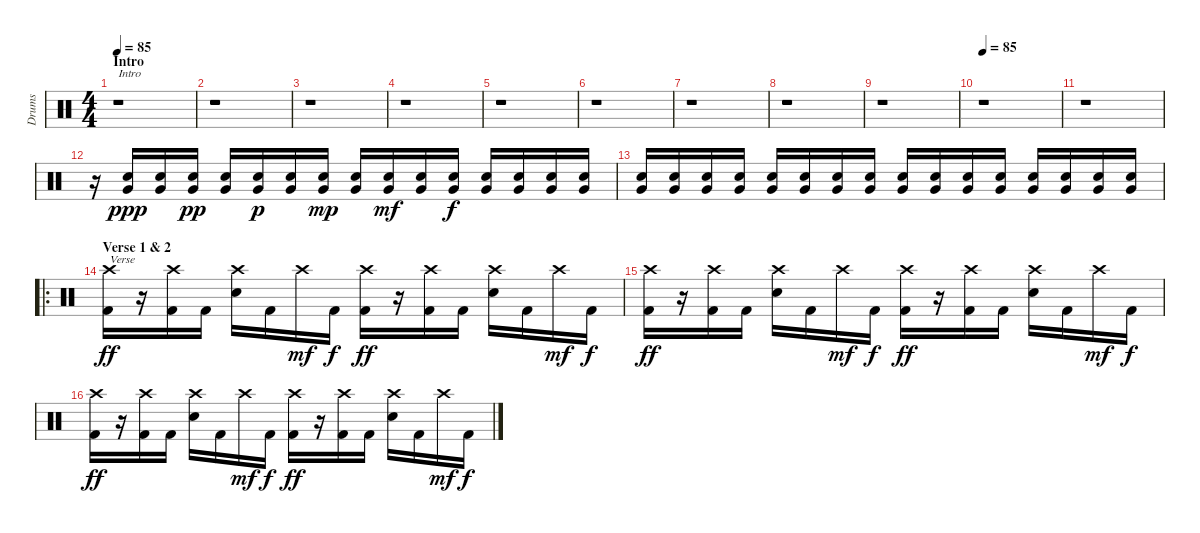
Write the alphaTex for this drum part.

\track ("Drums" "Drums") {instrument percussion}
\staff {score}
\articulation defaults
\ts (4 4)
\section ("" "Intro")
\tempo 85
\tempo 62
\tempo 85
\clef neutral
\ks c
r.1{txt "Intro" dy ppp} |
r.1 |
r.1 |
r.1 |
r.1 |
r.1 |
r.1 |
r.1 |
r.1 |
\tempo 85
r.1 |
r.1 |
r.16 ("Very Low Tom (hit)" "Snare (hit) 2").16 ("Very Low Tom (hit)" "Snare (hit) 2").16 ("Very Low Tom (hit)" "Snare (hit) 2").16{dy pp} ("Very Low Tom (hit)" "Snare (hit) 2").16 ("Very Low Tom (hit)" "Snare (hit) 2").16{dy p} ("Very Low Tom (hit)" "Snare (hit) 2").16 ("Very Low Tom (hit)" "Snare (hit) 2").16{dy mp} ("Very Low Tom (hit)" "Snare (hit) 2").16 ("Very Low Tom (hit)" "Snare (hit) 2").16{dy mf} ("Very Low Tom (hit)" "Snare (hit) 2").16 ("Very Low Tom (hit)" "Snare (hit) 2").16{dy f} ("Very Low Tom (hit)" "Snare (hit) 2").16 ("Very Low Tom (hit)" "Snare (hit) 2").16 ("Very Low Tom (hit)" "Snare (hit) 2").16 ("Very Low Tom (hit)" "Snare (hit) 2").16 |
("Very Low Tom (hit)" "Snare (hit) 2").16 ("Very Low Tom (hit)" "Snare (hit) 2").16 ("Very Low Tom (hit)" "Snare (hit) 2").16 ("Very Low Tom (hit)" "Snare (hit) 2").16 ("Very Low Tom (hit)" "Snare (hit) 2").16 ("Very Low Tom (hit)" "Snare (hit) 2").16 ("Very Low Tom (hit)" "Snare (hit) 2").16 ("Very Low Tom (hit)" "Snare (hit) 2").16 ("Very Low Tom (hit)" "Snare (hit) 2").16 ("Very Low Tom (hit)" "Snare (hit) 2").16 ("Very Low Tom (hit)" "Snare (hit) 2").16 ("Very Low Tom (hit)" "Snare (hit) 2").16 ("Very Low Tom (hit)" "Snare (hit) 2").16 ("Very Low Tom (hit)" "Snare (hit) 2").16 ("Very Low Tom (hit)" "Snare (hit) 2").16 ("Very Low Tom (hit)" "Snare (hit) 2").16 |
\ro
\section ("" "Verse 1 & 2")
("Crash high (hit)" "Kick (hit) 2").16{txt "Verse" dy ff} r.16 ("Crash high (hit)" "Kick (hit) 2").16 "Kick (hit) 2".16 ("Crash high (hit)" "Snare (hit) 2").16 "Kick (hit) 2".16 "Crash high (hit)".16{dy mf} "Kick (hit) 2".16{dy f} ("Crash high (hit)" "Kick (hit) 2").16{dy ff} r.16 ("Crash high (hit)" "Kick (hit) 2").16 "Kick (hit) 2".16 ("Crash high (hit)" "Snare (hit) 2").16 "Kick (hit) 2".16 "Crash high (hit)".16{dy mf} "Kick (hit) 2".16{dy f} |
("Crash high (hit)" "Kick (hit) 2").16{dy ff} r.16 ("Crash high (hit)" "Kick (hit) 2").16 "Kick (hit) 2".16 ("Crash high (hit)" "Snare (hit) 2").16 "Kick (hit) 2".16 "Crash high (hit)".16{dy mf} "Kick (hit) 2".16{dy f} ("Crash high (hit)" "Kick (hit) 2").16{dy ff} r.16 ("Crash high (hit)" "Kick (hit) 2").16 "Kick (hit) 2".16 ("Crash high (hit)" "Snare (hit) 2").16 "Kick (hit) 2".16 "Crash high (hit)".16{dy mf} "Kick (hit) 2".16{dy f} |
("Crash high (hit)" "Kick (hit) 2").16{dy ff} r.16 ("Crash high (hit)" "Kick (hit) 2").16 "Kick (hit) 2".16 ("Crash high (hit)" "Snare (hit) 2").16 "Kick (hit) 2".16 "Crash high (hit)".16{dy mf} "Kick (hit) 2".16{dy f} ("Crash high (hit)" "Kick (hit) 2").16{dy ff} r.16 ("Crash high (hit)" "Kick (hit) 2").16 "Kick (hit) 2".16 ("Crash high (hit)" "Snare (hit) 2").16 "Kick (hit) 2".16 "Crash high (hit)".16{dy mf} "Kick (hit) 2".16{dy f}
